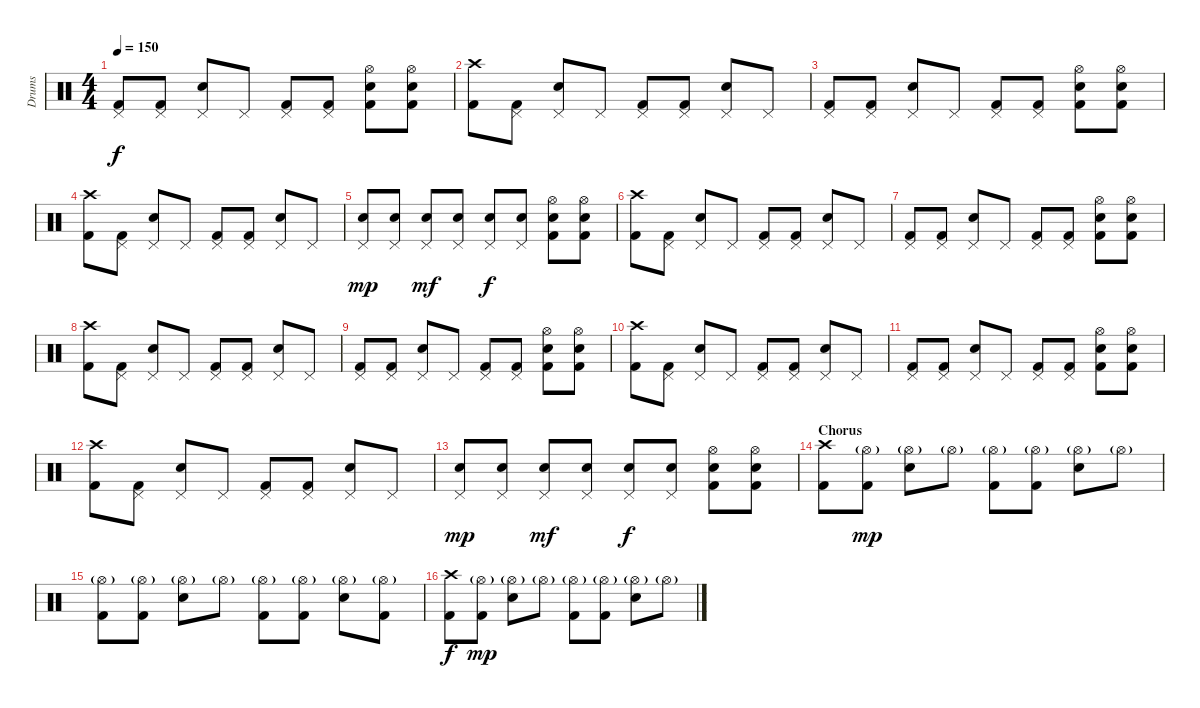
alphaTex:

\track ("Drums" "Drums") {instrument percussion}
\staff {score}
\articulation defaults
\ts (4 4)
\tempo 150
\clef neutral
\ks c
("Kick (hit) 2" "Pedal Hi-Hat (hit)").8{dy f} ("Kick (hit) 2" "Pedal Hi-Hat (hit)").8 ("Snare (hit) 2" "Pedal Hi-Hat (hit)").8 "Pedal Hi-Hat (hit)".8 ("Kick (hit) 2" "Pedal Hi-Hat (hit)").8 ("Kick (hit) 2" "Pedal Hi-Hat (hit)").8 ("Hi-Hat (open)" "Snare (hit) 2" "Kick (hit) 2").8 ("Hi-Hat (open)" "Snare (hit) 2" "Kick (hit) 2").8 |
("Kick (hit) 2" "Crash high (hit)").8 ("Kick (hit) 2" "Pedal Hi-Hat (hit)").8 ("Snare (hit) 2" "Pedal Hi-Hat (hit)").8 "Pedal Hi-Hat (hit)".8 ("Kick (hit) 2" "Pedal Hi-Hat (hit)").8 ("Kick (hit) 2" "Pedal Hi-Hat (hit)").8 ("Snare (hit) 2" "Pedal Hi-Hat (hit)").8 "Pedal Hi-Hat (hit)".8 |
("Kick (hit) 2" "Pedal Hi-Hat (hit)").8 ("Kick (hit) 2" "Pedal Hi-Hat (hit)").8 ("Snare (hit) 2" "Pedal Hi-Hat (hit)").8 "Pedal Hi-Hat (hit)".8 ("Kick (hit) 2" "Pedal Hi-Hat (hit)").8 ("Kick (hit) 2" "Pedal Hi-Hat (hit)").8 ("Hi-Hat (open)" "Snare (hit) 2" "Kick (hit) 2").8 ("Hi-Hat (open)" "Snare (hit) 2" "Kick (hit) 2").8 |
("Kick (hit) 2" "Crash high (hit)").8 ("Kick (hit) 2" "Pedal Hi-Hat (hit)").8 ("Snare (hit) 2" "Pedal Hi-Hat (hit)").8 "Pedal Hi-Hat (hit)".8 ("Kick (hit) 2" "Pedal Hi-Hat (hit)").8 ("Kick (hit) 2" "Pedal Hi-Hat (hit)").8 ("Snare (hit) 2" "Pedal Hi-Hat (hit)").8 "Pedal Hi-Hat (hit)".8 |
("Snare (hit) 2" "Pedal Hi-Hat (hit)").8{dy mp} ("Snare (hit) 2" "Pedal Hi-Hat (hit)").8 ("Snare (hit) 2" "Pedal Hi-Hat (hit)").8{dy mf} ("Snare (hit) 2" "Pedal Hi-Hat (hit)").8 ("Snare (hit) 2" "Pedal Hi-Hat (hit)").8{dy f} ("Snare (hit) 2" "Pedal Hi-Hat (hit)").8 ("Snare (hit) 2" "Kick (hit) 2" "Hi-Hat (open)").8 ("Snare (hit) 2" "Kick (hit) 2" "Hi-Hat (open)").8 |
("Kick (hit) 2" "Crash high (hit)").8 ("Kick (hit) 2" "Pedal Hi-Hat (hit)").8 ("Snare (hit) 2" "Pedal Hi-Hat (hit)").8 "Pedal Hi-Hat (hit)".8 ("Kick (hit) 2" "Pedal Hi-Hat (hit)").8 ("Kick (hit) 2" "Pedal Hi-Hat (hit)").8 ("Snare (hit) 2" "Pedal Hi-Hat (hit)").8 "Pedal Hi-Hat (hit)".8 |
("Kick (hit) 2" "Pedal Hi-Hat (hit)").8 ("Kick (hit) 2" "Pedal Hi-Hat (hit)").8 ("Snare (hit) 2" "Pedal Hi-Hat (hit)").8 "Pedal Hi-Hat (hit)".8 ("Kick (hit) 2" "Pedal Hi-Hat (hit)").8 ("Kick (hit) 2" "Pedal Hi-Hat (hit)").8 ("Hi-Hat (open)" "Snare (hit) 2" "Kick (hit) 2").8 ("Hi-Hat (open)" "Snare (hit) 2" "Kick (hit) 2").8 |
("Kick (hit) 2" "Crash high (hit)").8 ("Kick (hit) 2" "Pedal Hi-Hat (hit)").8 ("Snare (hit) 2" "Pedal Hi-Hat (hit)").8 "Pedal Hi-Hat (hit)".8 ("Kick (hit) 2" "Pedal Hi-Hat (hit)").8 ("Kick (hit) 2" "Pedal Hi-Hat (hit)").8 ("Snare (hit) 2" "Pedal Hi-Hat (hit)").8 "Pedal Hi-Hat (hit)".8 |
("Kick (hit) 2" "Pedal Hi-Hat (hit)").8 ("Kick (hit) 2" "Pedal Hi-Hat (hit)").8 ("Snare (hit) 2" "Pedal Hi-Hat (hit)").8 "Pedal Hi-Hat (hit)".8 ("Kick (hit) 2" "Pedal Hi-Hat (hit)").8 ("Kick (hit) 2" "Pedal Hi-Hat (hit)").8 ("Hi-Hat (open)" "Snare (hit) 2" "Kick (hit) 2").8 ("Hi-Hat (open)" "Snare (hit) 2" "Kick (hit) 2").8 |
("Kick (hit) 2" "Crash high (hit)").8 ("Kick (hit) 2" "Pedal Hi-Hat (hit)").8 ("Snare (hit) 2" "Pedal Hi-Hat (hit)").8 "Pedal Hi-Hat (hit)".8 ("Kick (hit) 2" "Pedal Hi-Hat (hit)").8 ("Kick (hit) 2" "Pedal Hi-Hat (hit)").8 ("Snare (hit) 2" "Pedal Hi-Hat (hit)").8 "Pedal Hi-Hat (hit)".8 |
("Kick (hit) 2" "Pedal Hi-Hat (hit)").8 ("Kick (hit) 2" "Pedal Hi-Hat (hit)").8 ("Snare (hit) 2" "Pedal Hi-Hat (hit)").8 "Pedal Hi-Hat (hit)".8 ("Kick (hit) 2" "Pedal Hi-Hat (hit)").8 ("Kick (hit) 2" "Pedal Hi-Hat (hit)").8 ("Hi-Hat (open)" "Snare (hit) 2" "Kick (hit) 2").8 ("Hi-Hat (open)" "Snare (hit) 2" "Kick (hit) 2").8 |
("Kick (hit) 2" "Crash high (hit)").8 ("Kick (hit) 2" "Pedal Hi-Hat (hit)").8 ("Snare (hit) 2" "Pedal Hi-Hat (hit)").8 "Pedal Hi-Hat (hit)".8 ("Kick (hit) 2" "Pedal Hi-Hat (hit)").8 ("Kick (hit) 2" "Pedal Hi-Hat (hit)").8 ("Snare (hit) 2" "Pedal Hi-Hat (hit)").8 "Pedal Hi-Hat (hit)".8 |
("Snare (hit) 2" "Pedal Hi-Hat (hit)").8{dy mp} ("Snare (hit) 2" "Pedal Hi-Hat (hit)").8 ("Snare (hit) 2" "Pedal Hi-Hat (hit)").8{dy mf} ("Snare (hit) 2" "Pedal Hi-Hat (hit)").8 ("Snare (hit) 2" "Pedal Hi-Hat (hit)").8{dy f} ("Snare (hit) 2" "Pedal Hi-Hat (hit)").8 ("Snare (hit) 2" "Kick (hit) 2" "Hi-Hat (open)").8 ("Snare (hit) 2" "Kick (hit) 2" "Hi-Hat (open)").8 |
\section ("" "Chorus")
("Crash high (hit)" "Kick (hit) 2").8 ("Hi-Hat (open)"{g} "Kick (hit) 2").8{dy mp} ("Hi-Hat (open)"{g} "Snare (hit) 2").8 "Hi-Hat (open)"{g}.8 ("Hi-Hat (open)"{g} "Kick (hit) 2").8 ("Hi-Hat (open)"{g} "Kick (hit) 2").8 ("Hi-Hat (open)"{g} "Snare (hit) 2").8 "Hi-Hat (open)"{g}.8 |
("Hi-Hat (open)"{g} "Kick (hit) 2").8 ("Hi-Hat (open)"{g} "Kick (hit) 2").8 ("Hi-Hat (open)"{g} "Snare (hit) 2").8 "Hi-Hat (open)"{g}.8 ("Hi-Hat (open)"{g} "Kick (hit) 2").8 ("Hi-Hat (open)"{g} "Kick (hit) 2").8 ("Hi-Hat (open)"{g} "Snare (hit) 2").8 ("Hi-Hat (open)"{g} "Kick (hit) 2").8 |
("Crash high (hit)" "Kick (hit) 2").8{dy f} ("Hi-Hat (open)"{g} "Kick (hit) 2").8{dy mp} ("Hi-Hat (open)"{g} "Snare (hit) 2").8 "Hi-Hat (open)"{g}.8 ("Hi-Hat (open)"{g} "Kick (hit) 2").8 ("Hi-Hat (open)"{g} "Kick (hit) 2").8 ("Hi-Hat (open)"{g} "Snare (hit) 2").8 "Hi-Hat (open)"{g}.8
